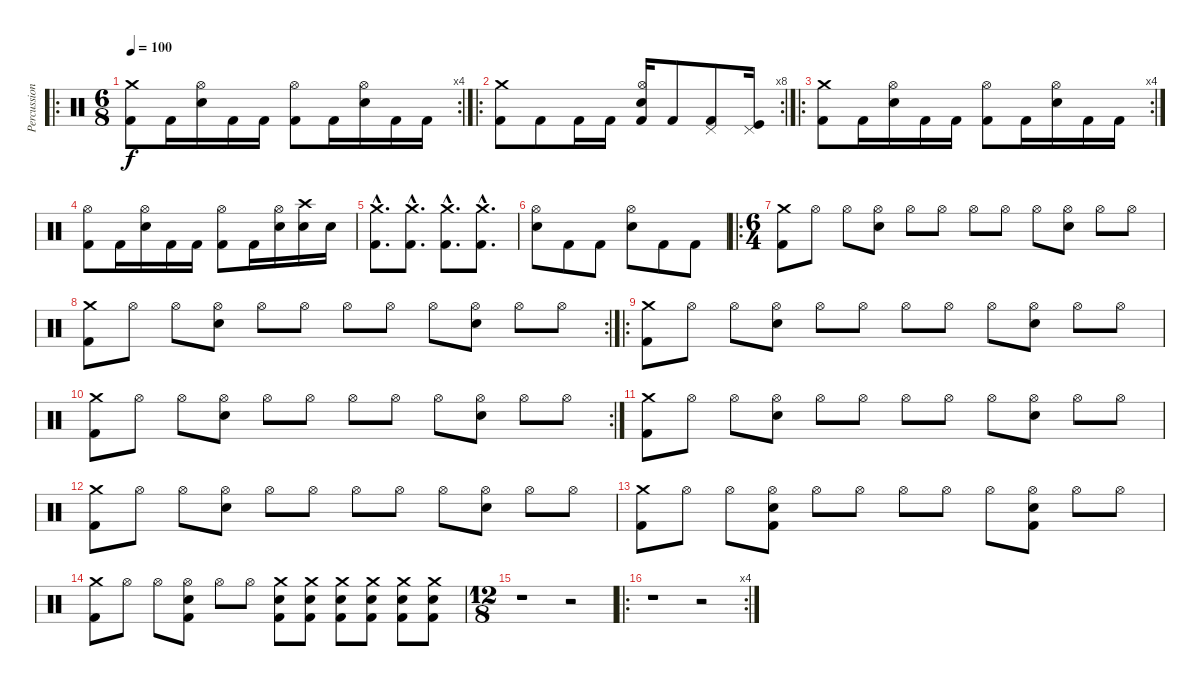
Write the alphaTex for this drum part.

\track ("Percussion" "Percussion") {instrument percussion}
\staff {score}
\articulation defaults
\ro
\rc 4
\ts (6 8)
\tempo 100
\clef neutral
\ks c
("Crash medium (hit)" "Kick (hit) 2").8{dy f} "Kick (hit) 2".16 ("Hi-Hat (open)" "Electric Snare (hit)").16 "Kick (hit) 2".16 "Kick (hit) 2".16 ("Hi-Hat (open)" "Kick (hit) 2").8 "Kick (hit) 2".16 ("Hi-Hat (open)" "Electric Snare (hit)").16 "Kick (hit) 2".16 "Kick (hit) 2".16 |
\ro
\rc 8
("Crash medium (hit)" "Kick (hit) 2").8 "Kick (hit) 2".8 "Kick (hit) 2".16 "Kick (hit) 2".16 ("Hi-Hat (open)" "Electric Snare (hit)" "Kick (hit) 2").16 "Kick (hit) 2".8 ("Pedal Hi-Hat (hit)" "Kick (hit) 2").8 ("Pedal Hi-Hat (hit)" "Kick (hit)").16 |
\ro
\rc 4
("Crash medium (hit)" "Kick (hit) 2").8 "Kick (hit) 2".16 ("Hi-Hat (open)" "Electric Snare (hit)").16 "Kick (hit) 2".16 "Kick (hit) 2".16 ("Hi-Hat (open)" "Kick (hit) 2").8 "Kick (hit) 2".16 ("Hi-Hat (open)" "Electric Snare (hit)").16 "Kick (hit) 2".16 "Kick (hit) 2".16 |
("Hi-Hat (open)" "Kick (hit) 2").8 "Kick (hit) 2".16 ("Hi-Hat (open)" "Electric Snare (hit)").16 "Kick (hit) 2".16 "Kick (hit) 2".16 ("Hi-Hat (open)" "Kick (hit) 2").8 "Kick (hit) 2".16 ("Hi-Hat (open)" "Electric Snare (hit)").16 ("Crash high (hit)" "Electric Snare (hit)").16 "Electric Snare (hit)".16 |
("Crash medium (hit)"{hac} "Kick (hit) 2"{hac}).8{d} ("Crash medium (hit)"{hac} "Kick (hit) 2"{hac}).8{d} ("Crash medium (hit)"{hac} "Kick (hit) 2"{hac}).8{d} ("Crash medium (hit)"{hac} "Kick (hit) 2"{hac}).8{d} |
("Hi-Hat (open)" "Electric Snare (hit)").8 "Kick (hit) 2".8 "Kick (hit) 2".8 ("Hi-Hat (open)" "Electric Snare (hit)").8 "Kick (hit) 2".8 "Kick (hit) 2".8 |
\ro
\ts (6 4)
("Crash medium (hit)" "Kick (hit) 2").8 "Hi-Hat (open)".8 "Hi-Hat (open)".8 ("Hi-Hat (open)" "Electric Snare (hit)").8 "Hi-Hat (open)".8 "Hi-Hat (open)".8 "Hi-Hat (open)".8 "Hi-Hat (open)".8 "Hi-Hat (open)".8 ("Hi-Hat (open)" "Electric Snare (hit)").8 "Hi-Hat (open)".8 "Hi-Hat (open)".8 |
\rc 2
("Crash medium (hit)" "Kick (hit) 2").8 "Hi-Hat (open)".8 "Hi-Hat (open)".8 ("Hi-Hat (open)" "Electric Snare (hit)").8 "Hi-Hat (open)".8 "Hi-Hat (open)".8 "Hi-Hat (open)".8 "Hi-Hat (open)".8 "Hi-Hat (open)".8 ("Hi-Hat (open)" "Electric Snare (hit)").8 "Hi-Hat (open)".8 "Hi-Hat (open)".8 |
\ro
("Crash medium (hit)" "Kick (hit) 2").8 "Hi-Hat (open)".8 "Hi-Hat (open)".8 ("Hi-Hat (open)" "Electric Snare (hit)").8 "Hi-Hat (open)".8 "Hi-Hat (open)".8 "Hi-Hat (open)".8 "Hi-Hat (open)".8 "Hi-Hat (open)".8 ("Hi-Hat (open)" "Electric Snare (hit)").8 "Hi-Hat (open)".8 "Hi-Hat (open)".8 |
\rc 2
("Crash medium (hit)" "Kick (hit) 2").8 "Hi-Hat (open)".8 "Hi-Hat (open)".8 ("Hi-Hat (open)" "Electric Snare (hit)").8 "Hi-Hat (open)".8 "Hi-Hat (open)".8 "Hi-Hat (open)".8 "Hi-Hat (open)".8 "Hi-Hat (open)".8 ("Hi-Hat (open)" "Electric Snare (hit)").8 "Hi-Hat (open)".8 "Hi-Hat (open)".8 |
("Crash medium (hit)" "Kick (hit) 2").8 "Hi-Hat (open)".8 "Hi-Hat (open)".8 ("Hi-Hat (open)" "Electric Snare (hit)").8 "Hi-Hat (open)".8 "Hi-Hat (open)".8 "Hi-Hat (open)".8 "Hi-Hat (open)".8 "Hi-Hat (open)".8 ("Hi-Hat (open)" "Electric Snare (hit)").8 "Hi-Hat (open)".8 "Hi-Hat (open)".8 |
("Crash medium (hit)" "Kick (hit) 2").8 "Hi-Hat (open)".8 "Hi-Hat (open)".8 ("Hi-Hat (open)" "Electric Snare (hit)").8 "Hi-Hat (open)".8 "Hi-Hat (open)".8 "Hi-Hat (open)".8 "Hi-Hat (open)".8 "Hi-Hat (open)".8 ("Hi-Hat (open)" "Electric Snare (hit)").8 "Hi-Hat (open)".8 "Hi-Hat (open)".8 |
("Crash medium (hit)" "Kick (hit) 2").8 "Hi-Hat (open)".8 "Hi-Hat (open)".8 ("Hi-Hat (open)" "Electric Snare (hit)" "Kick (hit) 2").8 "Hi-Hat (open)".8 "Hi-Hat (open)".8 "Hi-Hat (open)".8 "Hi-Hat (open)".8 "Hi-Hat (open)".8 ("Hi-Hat (open)" "Electric Snare (hit)" "Kick (hit) 2").8 "Hi-Hat (open)".8 "Hi-Hat (open)".8 |
("Crash medium (hit)" "Kick (hit) 2").8 "Hi-Hat (open)".8 "Hi-Hat (open)".8 ("Hi-Hat (open)" "Electric Snare (hit)" "Kick (hit) 2").8 "Hi-Hat (open)".8 "Hi-Hat (open)".8 ("Crash medium (hit)" "Electric Snare (hit)" "Kick (hit) 2").8 ("Crash medium (hit)" "Electric Snare (hit)" "Kick (hit) 2").8 ("Crash medium (hit)" "Electric Snare (hit)" "Kick (hit) 2").8 ("Crash medium (hit)" "Electric Snare (hit)" "Kick (hit) 2").8 ("Crash medium (hit)" "Electric Snare (hit)" "Kick (hit) 2").8 ("Crash medium (hit)" "Electric Snare (hit)" "Kick (hit) 2").8 |
\ts (12 8)
r.1 r.2 |
\ro
\rc 4
r.1 r.2
